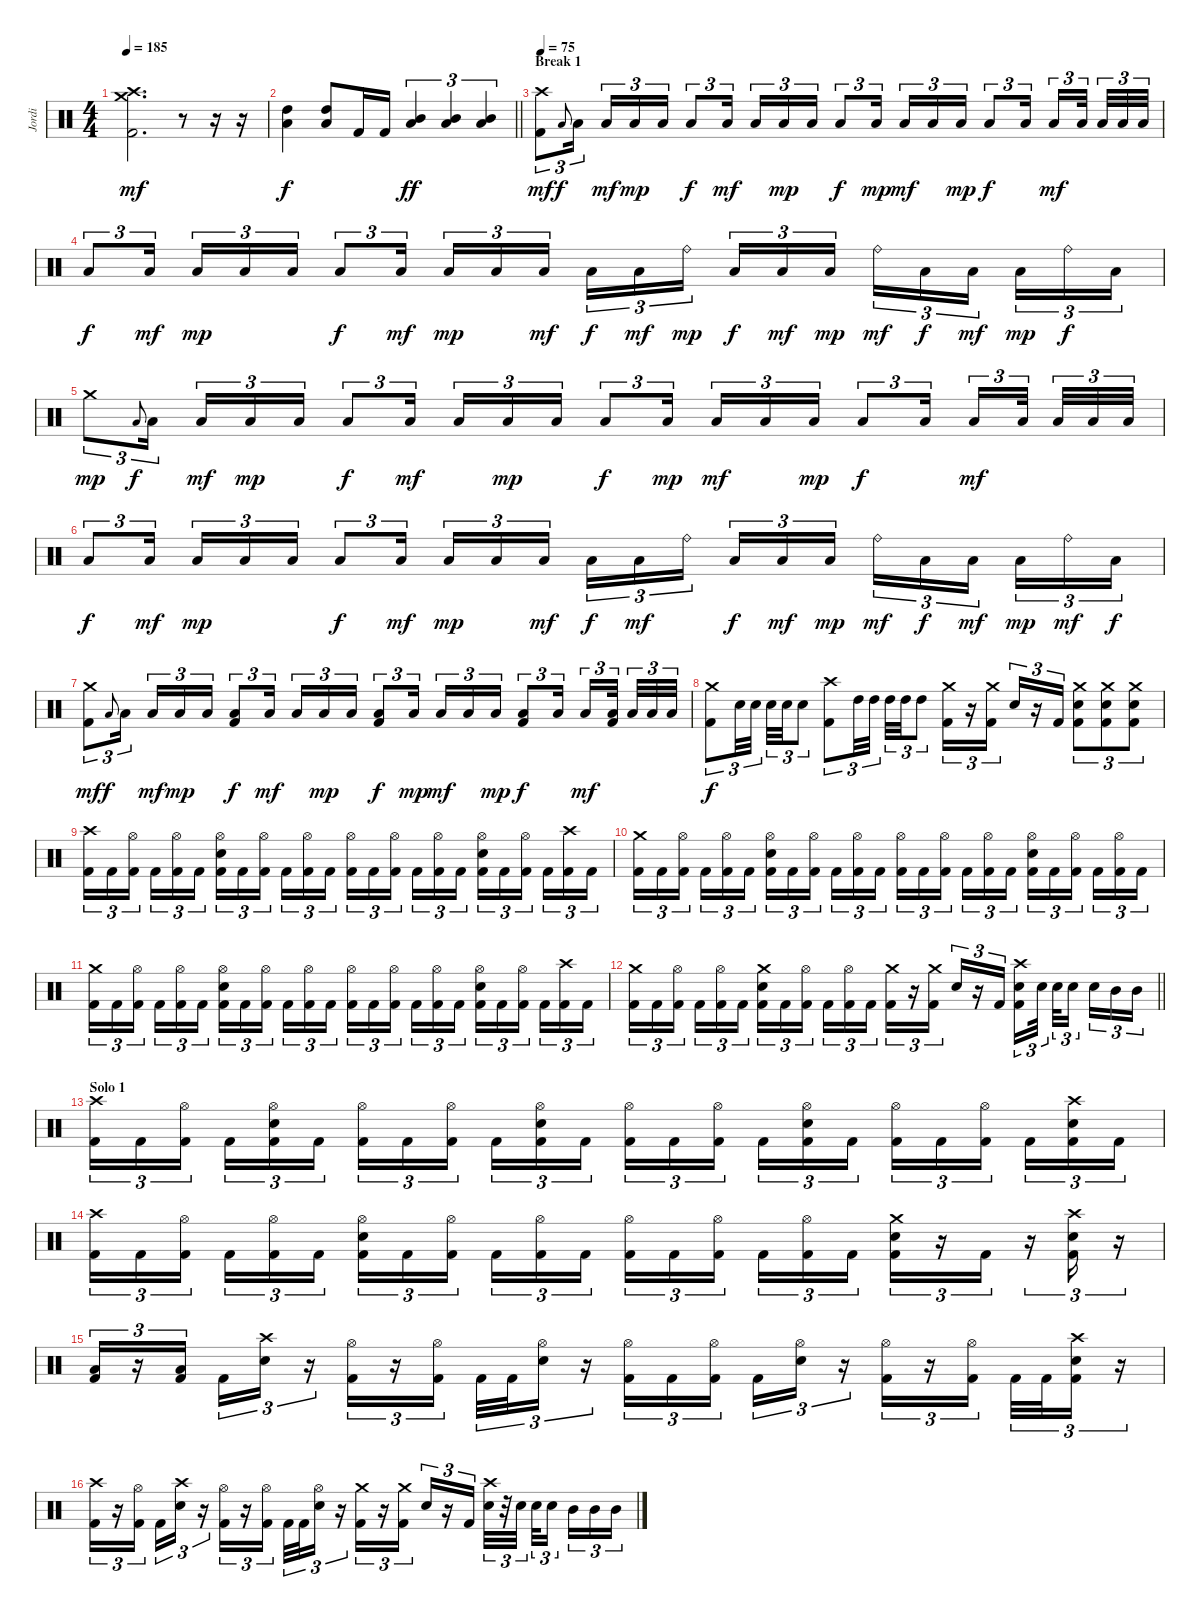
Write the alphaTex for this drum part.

\track ("Jordi" "Jordi") {instrument percussion}
\staff {score}
\articulation defaults
\ts (4 4)
\tempo 185
\clef neutral
\ks c
("Crash medium (hit)" "Crash high (hit)" "Kick (hit) 2").2{d dy mf} r.8 r.16 r.16 |
\barLineRight lightlight
("High Tom (hit)" "Low Tom (hit)").4{dy f} ("High Tom (hit)" "Low Tom (hit)").8 "Kick (hit) 2".16 "Kick (hit) 2".16 ("Mid Tom (hit)" "Low Tom (hit)").4{tu (3 2) dy ff} ("Mid Tom (hit)" "Low Tom (hit)").4{tu (3 2)} ("Mid Tom (hit)" "Low Tom (hit)").4{tu (3 2)} |
\section ("" "Break 1")
\tempo 75
("Crash high (hit)" "Kick (hit) 2").8{tu (3 2) dy mf volume 10} "Low Tom (hit)".8{gr onbeat dy f} "Low Tom (hit)".16{tu (3 2) beam splitsecondary} "Low Tom (hit)".16{tu (3 2) dy mf} "Low Tom (hit)".16{tu (3 2) dy mp} "Low Tom (hit)".16{tu (3 2)} "Low Tom (hit)".8{tu (3 2) dy f} "Low Tom (hit)".16{tu (3 2) dy mf beam splitsecondary} "Low Tom (hit)".16{tu (3 2)} "Low Tom (hit)".16{tu (3 2) dy mp} "Low Tom (hit)".16{tu (3 2)} "Low Tom (hit)".8{tu (3 2) dy f} "Low Tom (hit)".16{tu (3 2) dy mp beam splitsecondary} "Low Tom (hit)".16{tu (3 2) dy mf} "Low Tom (hit)".16{tu (3 2)} "Low Tom (hit)".16{tu (3 2) dy mp} "Low Tom (hit)".8{tu (3 2) dy f} "Low Tom (hit)".16{tu (3 2) beam splitsecondary} "Low Tom (hit)".16{tu (3 2) dy mf} "Low Tom (hit)".32{tu (3 2) beam splitsecondary} "Low Tom (hit)".32{tu (3 2)} "Low Tom (hit)".32{tu (3 2)} "Low Tom (hit)".32{tu (3 2)} |
"Low Tom (hit)".8{tu (3 2) dy f} "Low Tom (hit)".16{tu (3 2) dy mf beam splitsecondary} "Low Tom (hit)".16{tu (3 2) dy mp} "Low Tom (hit)".16{tu (3 2)} "Low Tom (hit)".16{tu (3 2)} "Low Tom (hit)".8{tu (3 2) dy f} "Low Tom (hit)".16{tu (3 2) dy mf beam splitsecondary} "Low Tom (hit)".16{tu (3 2) dy mp} "Low Tom (hit)".16{tu (3 2)} "Low Tom (hit)".16{tu (3 2) dy mf} "Low Tom (hit)".16{tu (3 2) dy f} "Low Tom (hit)".16{tu (3 2) dy mf} "Ride (bell)".16{tu (3 2) dy mp beam splitsecondary} "Low Tom (hit)".16{tu (3 2) dy f} "Low Tom (hit)".16{tu (3 2) dy mf} "Low Tom (hit)".16{tu (3 2) dy mp} "Ride (bell)".16{tu (3 2) dy mf} "Low Tom (hit)".16{tu (3 2) dy f} "Low Tom (hit)".16{tu (3 2) dy mf beam splitsecondary} "Low Tom (hit)".16{tu (3 2) dy mp} "Ride (bell)".16{tu (3 2) dy f} "Low Tom (hit)".16{tu (3 2)} |
"Crash medium (hit)".8{tu (3 2) dy mp} "Low Tom (hit)".8{gr onbeat dy f} "Low Tom (hit)".16{tu (3 2) beam splitsecondary} "Low Tom (hit)".16{tu (3 2) dy mf} "Low Tom (hit)".16{tu (3 2) dy mp} "Low Tom (hit)".16{tu (3 2)} "Low Tom (hit)".8{tu (3 2) dy f} "Low Tom (hit)".16{tu (3 2) dy mf beam splitsecondary} "Low Tom (hit)".16{tu (3 2)} "Low Tom (hit)".16{tu (3 2) dy mp} "Low Tom (hit)".16{tu (3 2)} "Low Tom (hit)".8{tu (3 2) dy f} "Low Tom (hit)".16{tu (3 2) dy mp beam splitsecondary} "Low Tom (hit)".16{tu (3 2) dy mf} "Low Tom (hit)".16{tu (3 2)} "Low Tom (hit)".16{tu (3 2) dy mp} "Low Tom (hit)".8{tu (3 2) dy f} "Low Tom (hit)".16{tu (3 2) beam splitsecondary} "Low Tom (hit)".16{tu (3 2) dy mf} "Low Tom (hit)".32{tu (3 2) beam splitsecondary} "Low Tom (hit)".32{tu (3 2)} "Low Tom (hit)".32{tu (3 2)} "Low Tom (hit)".32{tu (3 2)} |
"Low Tom (hit)".8{tu (3 2) dy f} "Low Tom (hit)".16{tu (3 2) dy mf beam splitsecondary} "Low Tom (hit)".16{tu (3 2) dy mp} "Low Tom (hit)".16{tu (3 2)} "Low Tom (hit)".16{tu (3 2)} "Low Tom (hit)".8{tu (3 2) dy f} "Low Tom (hit)".16{tu (3 2) dy mf beam splitsecondary} "Low Tom (hit)".16{tu (3 2) dy mp} "Low Tom (hit)".16{tu (3 2)} "Low Tom (hit)".16{tu (3 2) dy mf} "Low Tom (hit)".16{tu (3 2) dy f} "Low Tom (hit)".16{tu (3 2) dy mf} "Ride (bell)".16{tu (3 2) beam splitsecondary} "Low Tom (hit)".16{tu (3 2) dy f} "Low Tom (hit)".16{tu (3 2) dy mf} "Low Tom (hit)".16{tu (3 2) dy mp} "Ride (bell)".16{tu (3 2) dy mf} "Low Tom (hit)".16{tu (3 2) dy f} "Low Tom (hit)".16{tu (3 2) dy mf beam splitsecondary} "Low Tom (hit)".16{tu (3 2) dy mp} "Ride (bell)".16{tu (3 2) dy mf} "Low Tom (hit)".16{tu (3 2) dy f} |
("Crash medium (hit)" "Kick (hit) 2").8{tu (3 2) dy mf volume 12} "Low Tom (hit)".8{gr onbeat dy f} "Low Tom (hit)".16{tu (3 2) beam splitsecondary} "Low Tom (hit)".16{tu (3 2) dy mf} "Low Tom (hit)".16{tu (3 2) dy mp} "Low Tom (hit)".16{tu (3 2)} ("Low Tom (hit)" "Kick (hit) 2").8{tu (3 2) dy f} "Low Tom (hit)".16{tu (3 2) dy mf beam splitsecondary} "Low Tom (hit)".16{tu (3 2)} "Low Tom (hit)".16{tu (3 2) dy mp} "Low Tom (hit)".16{tu (3 2)} ("Low Tom (hit)" "Kick (hit) 2").8{tu (3 2) dy f} "Low Tom (hit)".16{tu (3 2) dy mp beam splitsecondary} "Low Tom (hit)".16{tu (3 2) dy mf} "Low Tom (hit)".16{tu (3 2)} "Low Tom (hit)".16{tu (3 2) dy mp} ("Low Tom (hit)" "Kick (hit) 2").8{tu (3 2) dy f} "Low Tom (hit)".16{tu (3 2) beam splitsecondary} "Low Tom (hit)".16{tu (3 2) dy mf} ("Low Tom (hit)" "Kick (hit) 2").32{tu (3 2) beam splitsecondary} "Low Tom (hit)".32{tu (3 2)} "Low Tom (hit)".32{tu (3 2)} "Low Tom (hit)".32{tu (3 2)} |
("Crash medium (hit)" "Kick (hit) 2").8{tu (3 2) dy f volume 16} "Snare (hit) 2".32{tu (3 2)} "Snare (hit) 2".32{tu (3 2) beam splitsecondary} "Snare (hit) 2".32{tu (3 2)} "Snare (hit) 2".32{tu (3 2)} "Snare (hit) 2".8{tu (3 2)} ("Crash high (hit)" "Kick (hit) 2").8{tu (3 2)} "High Tom (hit)".32{tu (3 2)} "High Tom (hit)".32{tu (3 2) beam splitsecondary} "High Tom (hit)".32{tu (3 2)} "High Tom (hit)".32{tu (3 2)} "High Tom (hit)".8{tu (3 2)} ("Crash medium (hit)" "Kick (hit) 2").16{tu (3 2)} r.16{tu (3 2)} ("Crash medium (hit)" "Kick (hit) 2").16{tu (3 2)} "Snare (hit) 2".16{tu (3 2)} r.16{tu (3 2)} "Kick (hit) 2".16{tu (3 2)} ("Crash medium (hit)" "Snare (hit) 2" "Kick (hit) 2").8{tu (3 2)} ("Crash medium (hit)" "Snare (hit) 2" "Kick (hit) 2").8{tu (3 2)} ("Crash medium (hit)" "Snare (hit) 2" "Kick (hit) 2").8{tu (3 2)} |
("Crash high (hit)" "Kick (hit) 2").16{tu (3 2)} "Kick (hit) 2".16{tu (3 2)} ("Hi-Hat (open)" "Kick (hit) 2").16{tu (3 2) beam splitsecondary} "Kick (hit) 2".16{tu (3 2)} ("Hi-Hat (open)" "Kick (hit) 2").16{tu (3 2)} "Kick (hit) 2".16{tu (3 2)} ("Hi-Hat (open)" "Snare (hit) 2" "Kick (hit) 2").16{tu (3 2)} "Kick (hit) 2".16{tu (3 2)} ("Hi-Hat (open)" "Kick (hit) 2").16{tu (3 2) beam splitsecondary} "Kick (hit) 2".16{tu (3 2)} ("Hi-Hat (open)" "Kick (hit) 2").16{tu (3 2)} "Kick (hit) 2".16{tu (3 2)} ("Hi-Hat (open)" "Kick (hit) 2").16{tu (3 2)} "Kick (hit) 2".16{tu (3 2)} ("Hi-Hat (open)" "Kick (hit) 2").16{tu (3 2) beam splitsecondary} "Kick (hit) 2".16{tu (3 2)} ("Hi-Hat (open)" "Kick (hit) 2").16{tu (3 2)} "Kick (hit) 2".16{tu (3 2)} ("Hi-Hat (open)" "Snare (hit) 2" "Kick (hit) 2").16{tu (3 2)} "Kick (hit) 2".16{tu (3 2)} ("Hi-Hat (open)" "Kick (hit) 2").16{tu (3 2) beam splitsecondary} "Kick (hit) 2".16{tu (3 2)} ("Crash high (hit)" "Kick (hit) 2").16{tu (3 2)} "Kick (hit) 2".16{tu (3 2)} |
("Crash medium (hit)" "Kick (hit) 2").16{tu (3 2)} "Kick (hit) 2".16{tu (3 2)} ("Hi-Hat (open)" "Kick (hit) 2").16{tu (3 2) beam splitsecondary} "Kick (hit) 2".16{tu (3 2)} ("Hi-Hat (open)" "Kick (hit) 2").16{tu (3 2)} "Kick (hit) 2".16{tu (3 2)} ("Hi-Hat (open)" "Snare (hit) 2" "Kick (hit) 2").16{tu (3 2)} "Kick (hit) 2".16{tu (3 2)} ("Hi-Hat (open)" "Kick (hit) 2").16{tu (3 2) beam splitsecondary} "Kick (hit) 2".16{tu (3 2)} ("Hi-Hat (open)" "Kick (hit) 2").16{tu (3 2)} "Kick (hit) 2".16{tu (3 2)} ("Hi-Hat (open)" "Kick (hit) 2").16{tu (3 2)} "Kick (hit) 2".16{tu (3 2)} ("Hi-Hat (open)" "Kick (hit) 2").16{tu (3 2) beam splitsecondary} "Kick (hit) 2".16{tu (3 2)} ("Hi-Hat (open)" "Kick (hit) 2").16{tu (3 2)} "Kick (hit) 2".16{tu (3 2)} ("Hi-Hat (open)" "Snare (hit) 2" "Kick (hit) 2").16{tu (3 2)} "Kick (hit) 2".16{tu (3 2)} ("Hi-Hat (open)" "Kick (hit) 2").16{tu (3 2) beam splitsecondary} "Kick (hit) 2".16{tu (3 2)} ("Hi-Hat (open)" "Kick (hit) 2").16{tu (3 2)} "Kick (hit) 2".16{tu (3 2)} |
("Crash medium (hit)" "Kick (hit) 2").16{tu (3 2)} "Kick (hit) 2".16{tu (3 2)} ("Hi-Hat (open)" "Kick (hit) 2").16{tu (3 2) beam splitsecondary} "Kick (hit) 2".16{tu (3 2)} ("Hi-Hat (open)" "Kick (hit) 2").16{tu (3 2)} "Kick (hit) 2".16{tu (3 2)} ("Hi-Hat (open)" "Snare (hit) 2" "Kick (hit) 2").16{tu (3 2)} "Kick (hit) 2".16{tu (3 2)} ("Hi-Hat (open)" "Kick (hit) 2").16{tu (3 2) beam splitsecondary} "Kick (hit) 2".16{tu (3 2)} ("Hi-Hat (open)" "Kick (hit) 2").16{tu (3 2)} "Kick (hit) 2".16{tu (3 2)} ("Hi-Hat (open)" "Kick (hit) 2").16{tu (3 2)} "Kick (hit) 2".16{tu (3 2)} ("Hi-Hat (open)" "Kick (hit) 2").16{tu (3 2) beam splitsecondary} "Kick (hit) 2".16{tu (3 2)} ("Hi-Hat (open)" "Kick (hit) 2").16{tu (3 2)} "Kick (hit) 2".16{tu (3 2)} ("Hi-Hat (open)" "Snare (hit) 2" "Kick (hit) 2").16{tu (3 2)} "Kick (hit) 2".16{tu (3 2)} ("Hi-Hat (open)" "Kick (hit) 2").16{tu (3 2) beam splitsecondary} "Kick (hit) 2".16{tu (3 2)} ("Crash high (hit)" "Kick (hit) 2").16{tu (3 2)} "Kick (hit) 2".16{tu (3 2)} |
\barLineRight lightlight
("Crash medium (hit)" "Kick (hit) 2").16{tu (3 2)} "Kick (hit) 2".16{tu (3 2)} ("Hi-Hat (open)" "Kick (hit) 2").16{tu (3 2) beam splitsecondary} "Kick (hit) 2".16{tu (3 2)} ("Hi-Hat (open)" "Kick (hit) 2").16{tu (3 2)} "Kick (hit) 2".16{tu (3 2)} ("Crash medium (hit)" "Snare (hit) 2" "Kick (hit) 2").16{tu (3 2)} "Kick (hit) 2".16{tu (3 2)} ("Hi-Hat (open)" "Kick (hit) 2").16{tu (3 2) beam splitsecondary} "Kick (hit) 2".16{tu (3 2)} ("Hi-Hat (open)" "Kick (hit) 2").16{tu (3 2)} "Kick (hit) 2".16{tu (3 2)} ("Crash medium (hit)" "Kick (hit) 2").16{tu (3 2)} r.16{tu (3 2)} ("Crash medium (hit)" "Kick (hit) 2").16{tu (3 2)} "Snare (hit) 2".16{tu (3 2)} r.16{tu (3 2)} "Kick (hit) 2".16{tu (3 2)} ("Crash high (hit)" "Snare (hit) 2" "Kick (hit) 2").16{tu (3 2)} "Snare (hit) 2".32{tu (3 2) beam splitsecondary} "Snare (hit) 2".32{tu (3 2)} "Snare (hit) 2".16{tu (3 2) beam splitsecondary} "Snare (hit) 2".16{tu (3 2)} "Mid Tom (hit)".16{tu (3 2)} "Mid Tom (hit)".16{tu (3 2)} |
\section ("" "Solo 1")
("Crash high (hit)" "Kick (hit) 2").16{tu (3 2)} "Kick (hit) 2".16{tu (3 2)} ("Hi-Hat (open)" "Kick (hit) 2").16{tu (3 2) beam splitsecondary} "Kick (hit) 2".16{tu (3 2)} ("Hi-Hat (open)" "Snare (hit) 2" "Kick (hit) 2").16{tu (3 2)} "Kick (hit) 2".16{tu (3 2)} ("Hi-Hat (open)" "Kick (hit) 2").16{tu (3 2)} "Kick (hit) 2".16{tu (3 2)} ("Hi-Hat (open)" "Kick (hit) 2").16{tu (3 2) beam splitsecondary} "Kick (hit) 2".16{tu (3 2)} ("Hi-Hat (open)" "Snare (hit) 2" "Kick (hit) 2").16{tu (3 2)} "Kick (hit) 2".16{tu (3 2)} ("Hi-Hat (open)" "Kick (hit) 2").16{tu (3 2)} "Kick (hit) 2".16{tu (3 2)} ("Hi-Hat (open)" "Kick (hit) 2").16{tu (3 2) beam splitsecondary} "Kick (hit) 2".16{tu (3 2)} ("Hi-Hat (open)" "Snare (hit) 2" "Kick (hit) 2").16{tu (3 2)} "Kick (hit) 2".16{tu (3 2)} ("Hi-Hat (open)" "Kick (hit) 2").16{tu (3 2)} "Kick (hit) 2".16{tu (3 2)} ("Hi-Hat (open)" "Kick (hit) 2").16{tu (3 2) beam splitsecondary} "Kick (hit) 2".16{tu (3 2)} ("Crash high (hit)" "Snare (hit) 2" "Kick (hit) 2").16{tu (3 2)} "Kick (hit) 2".16{tu (3 2)} |
("Crash high (hit)" "Kick (hit) 2").16{tu (3 2)} "Kick (hit) 2".16{tu (3 2)} ("Hi-Hat (open)" "Kick (hit) 2").16{tu (3 2) beam splitsecondary} "Kick (hit) 2".16{tu (3 2)} ("Hi-Hat (open)" "Kick (hit) 2").16{tu (3 2)} "Kick (hit) 2".16{tu (3 2)} ("Hi-Hat (open)" "Snare (hit) 2" "Kick (hit) 2").16{tu (3 2)} "Kick (hit) 2".16{tu (3 2)} ("Hi-Hat (open)" "Kick (hit) 2").16{tu (3 2) beam splitsecondary} "Kick (hit) 2".16{tu (3 2)} ("Hi-Hat (open)" "Kick (hit) 2").16{tu (3 2)} "Kick (hit) 2".16{tu (3 2)} ("Hi-Hat (open)" "Kick (hit) 2").16{tu (3 2)} "Kick (hit) 2".16{tu (3 2)} ("Hi-Hat (open)" "Kick (hit) 2").16{tu (3 2) beam splitsecondary} "Kick (hit) 2".16{tu (3 2)} ("Hi-Hat (open)" "Kick (hit) 2").16{tu (3 2)} "Kick (hit) 2".16{tu (3 2)} ("Crash medium (hit)" "Snare (hit) 2" "Kick (hit) 2").16{tu (3 2)} r.16{tu (3 2)} "Kick (hit) 2".16{tu (3 2)} r.16{tu (3 2)} ("Crash high (hit)" "Snare (hit) 2" "Kick (hit) 2").16{tu (3 2)} r.16{tu (3 2)} |
("Low Tom (hit)" "Kick (hit) 2").16{tu (3 2)} r.16{tu (3 2)} ("Low Tom (hit)" "Kick (hit) 2").16{tu (3 2) beam splitsecondary} "Kick (hit) 2".16{tu (3 2)} ("Crash high (hit)" "Snare (hit) 2").16{tu (3 2)} r.16{tu (3 2)} ("Hi-Hat (open)" "Kick (hit) 2").16{tu (3 2)} r.16{tu (3 2)} ("Hi-Hat (open)" "Kick (hit) 2").16{tu (3 2) beam splitsecondary} "Kick (hit) 2".32{tu (3 2)} "Kick (hit) 2".32{tu (3 2)} ("Hi-Hat (open)" "Snare (hit) 2").16{tu (3 2)} r.16{tu (3 2)} ("Hi-Hat (open)" "Kick (hit) 2").16{tu (3 2)} "Kick (hit) 2".16{tu (3 2)} ("Hi-Hat (open)" "Kick (hit) 2").16{tu (3 2) beam splitsecondary} "Kick (hit) 2".16{tu (3 2)} ("Hi-Hat (open)" "Snare (hit) 2").16{tu (3 2)} r.16{tu (3 2)} ("Hi-Hat (open)" "Kick (hit) 2").16{tu (3 2)} r.16{tu (3 2)} ("Hi-Hat (open)" "Kick (hit) 2").16{tu (3 2) beam splitsecondary} "Kick (hit) 2".32{tu (3 2)} "Kick (hit) 2".32{tu (3 2)} ("Crash high (hit)" "Snare (hit) 2" "Kick (hit) 2").16{tu (3 2)} r.16{tu (3 2)} |
("Crash high (hit)" "Kick (hit) 2").16{tu (3 2)} r.16{tu (3 2)} ("Hi-Hat (open)" "Kick (hit) 2").16{tu (3 2) beam splitsecondary} "Kick (hit) 2".16{tu (3 2)} ("Crash high (hit)" "Snare (hit) 2").16{tu (3 2)} r.16{tu (3 2)} ("Hi-Hat (open)" "Kick (hit) 2").16{tu (3 2)} r.16{tu (3 2)} ("Hi-Hat (open)" "Kick (hit) 2").16{tu (3 2) beam splitsecondary} "Kick (hit) 2".32{tu (3 2)} "Kick (hit) 2".32{tu (3 2)} ("Hi-Hat (open)" "Snare (hit) 2").16{tu (3 2)} r.16{tu (3 2)} ("Crash medium (hit)" "Kick (hit) 2").16{tu (3 2)} r.16{tu (3 2)} ("Crash medium (hit)" "Kick (hit) 2").16{tu (3 2)} "Snare (hit) 2".16{tu (3 2)} r.16{tu (3 2)} "Kick (hit) 2".16{tu (3 2)} ("Crash high (hit)" "Snare (hit) 2").32{tu (3 2)} r.32{tu (3 2)} "Snare (hit) 2".32{tu (3 2) beam splitsecondary} "Snare (hit) 2".32{tu (3 2)} "Snare (hit) 2".16{tu (3 2) beam splitsecondary} "Mid Tom (hit)".16{tu (3 2)} "Mid Tom (hit)".16{tu (3 2)} "Mid Tom (hit)".16{tu (3 2)}
